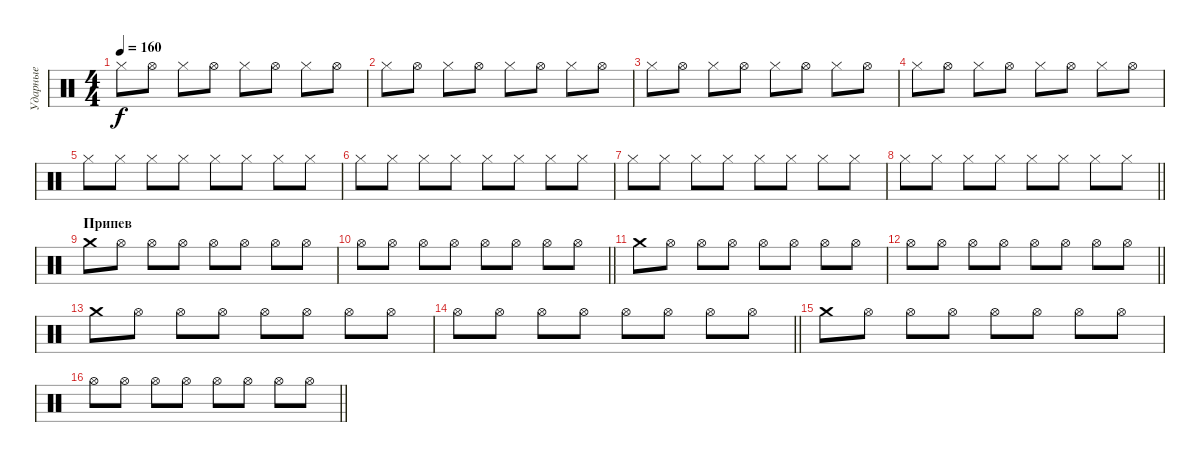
\track ("Ударные" "Ударные") {instrument percussion}
\staff {score}
\articulation defaults
\ts (4 4)
\tempo 160
\clef neutral
\ks c "Hi-Hat (closed)".8{dy f} "Hi-Hat (open)".8 "Hi-Hat (closed)".8 "Hi-Hat (open)".8 "Hi-Hat (closed)".8 "Hi-Hat (open)".8 "Hi-Hat (closed)".8 "Hi-Hat (open)".8
|
"Hi-Hat (closed)".8 "Hi-Hat (open)".8 "Hi-Hat (closed)".8 "Hi-Hat (open)".8 "Hi-Hat (closed)".8 "Hi-Hat (open)".8 "Hi-Hat (closed)".8 "Hi-Hat (open)".8 |
"Hi-Hat (closed)".8 "Hi-Hat (open)".8 "Hi-Hat (closed)".8 "Hi-Hat (open)".8 "Hi-Hat (closed)".8 "Hi-Hat (open)".8 "Hi-Hat (closed)".8 "Hi-Hat (open)".8 |
"Hi-Hat (closed)".8 "Hi-Hat (open)".8 "Hi-Hat (closed)".8 "Hi-Hat (open)".8 "Hi-Hat (closed)".8 "Hi-Hat (open)".8 "Hi-Hat (closed)".8 "Hi-Hat (open)".8 |
"Hi-Hat (closed)".8 "Hi-Hat (closed)".8 "Hi-Hat (closed)".8 "Hi-Hat (closed)".8 "Hi-Hat (closed)".8 "Hi-Hat (closed)".8 "Hi-Hat (closed)".8 "Hi-Hat (closed)".8 |
"Hi-Hat (closed)".8 "Hi-Hat (closed)".8 "Hi-Hat (closed)".8 "Hi-Hat (closed)".8 "Hi-Hat (closed)".8 "Hi-Hat (closed)".8 "Hi-Hat (closed)".8 "Hi-Hat (closed)".8 |
"Hi-Hat (closed)".8 "Hi-Hat (closed)".8 "Hi-Hat (closed)".8 "Hi-Hat (closed)".8 "Hi-Hat (closed)".8 "Hi-Hat (closed)".8 "Hi-Hat (closed)".8 "Hi-Hat (closed)".8 |
\barLineRight lightlight "Hi-Hat (closed)".8 "Hi-Hat (closed)".8 "Hi-Hat (closed)".8 "Hi-Hat (closed)".8 "Hi-Hat (closed)".8 "Hi-Hat (closed)".8 "Hi-Hat (closed)".8 "Hi-Hat (closed)".8
|
\section ("" "Припев")
"Crash medium (hit)".8 "Hi-Hat (open)".8 "Hi-Hat (open)".8 "Hi-Hat (open)".8 "Hi-Hat (open)".8 "Hi-Hat (open)".8 "Hi-Hat (open)".8 "Hi-Hat (open)".8 |
\barLineRight lightlight "Hi-Hat (open)".8 "Hi-Hat (open)".8 "Hi-Hat (open)".8 "Hi-Hat (open)".8 "Hi-Hat (open)".8 "Hi-Hat (open)".8 "Hi-Hat (open)".8 "Hi-Hat (open)".8
|
"Crash medium (hit)".8 "Hi-Hat (open)".8 "Hi-Hat (open)".8 "Hi-Hat (open)".8 "Hi-Hat (open)".8 "Hi-Hat (open)".8 "Hi-Hat (open)".8 "Hi-Hat (open)".8 |
\barLineRight lightlight "Hi-Hat (open)".8 "Hi-Hat (open)".8 "Hi-Hat (open)".8 "Hi-Hat (open)".8 "Hi-Hat (open)".8 "Hi-Hat (open)".8 "Hi-Hat (open)".8 "Hi-Hat (open)".8
|
"Crash medium (hit)".8 "Hi-Hat (open)".8 "Hi-Hat (open)".8 "Hi-Hat (open)".8 "Hi-Hat (open)".8 "Hi-Hat (open)".8 "Hi-Hat (open)".8 "Hi-Hat (open)".8 |
\barLineRight lightlight "Hi-Hat (open)".8 "Hi-Hat (open)".8 "Hi-Hat (open)".8 "Hi-Hat (open)".8 "Hi-Hat (open)".8 "Hi-Hat (open)".8 "Hi-Hat (open)".8 "Hi-Hat (open)".8
|
"Crash medium (hit)".8 "Hi-Hat (open)".8 "Hi-Hat (open)".8 "Hi-Hat (open)".8 "Hi-Hat (open)".8 "Hi-Hat (open)".8 "Hi-Hat (open)".8 "Hi-Hat (open)".8 |
\barLineRight lightlight "Hi-Hat (open)".8 "Hi-Hat (open)".8 "Hi-Hat (open)".8 "Hi-Hat (open)".8 "Hi-Hat (open)".8 "Hi-Hat (open)".8 "Hi-Hat (open)".8 "Hi-Hat (open)".8
